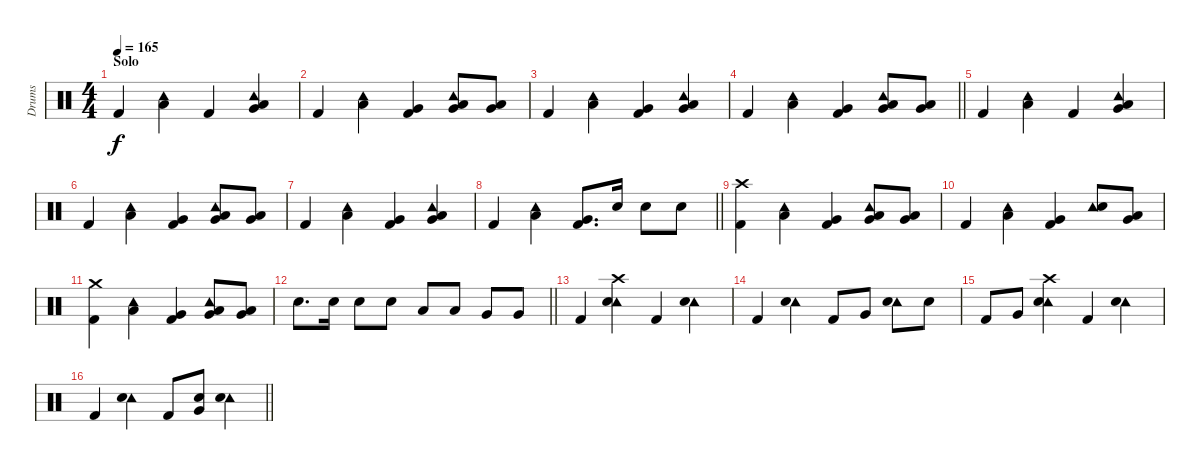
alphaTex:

\track ("Drums" "Drums") {instrument percussion}
\staff {score}
\articulation defaults
\ts (4 4)
\section ("" "Solo")
\tempo 165
\clef neutral
\ks c "Kick (hit) 2".4{dy f}
("Tambourine (hit)" "Low Tom (hit)").4 "Kick (hit) 2".4 ("Tambourine (hit)" "Low Tom (hit)" "Very Low Tom (hit)").4 |
"Kick (hit) 2".4 ("Tambourine (hit)" "Low Tom (hit)").4 ("Very Low Tom (hit)" "Kick (hit) 2").4 ("Tambourine (hit)" "Low Tom (hit)" "Very Low Tom (hit)").8 ("Low Tom (hit)" "Very Low Tom (hit)").8 |
"Kick (hit) 2".4 ("Tambourine (hit)" "Low Tom (hit)").4 ("Very Low Tom (hit)" "Kick (hit) 2").4 ("Tambourine (hit)" "Low Tom (hit)" "Very Low Tom (hit)").4 |
\barLineRight lightlight "Kick (hit) 2".4
("Tambourine (hit)" "Low Tom (hit)").4 ("Very Low Tom (hit)" "Kick (hit) 2").4 ("Tambourine (hit)" "Low Tom (hit)" "Very Low Tom (hit)").8 ("Low Tom (hit)" "Very Low Tom (hit)").8 |
"Kick (hit) 2".4 ("Tambourine (hit)" "Low Tom (hit)").4 "Kick (hit) 2".4 ("Tambourine (hit)" "Low Tom (hit)" "Very Low Tom (hit)").4 |
"Kick (hit) 2".4 ("Tambourine (hit)" "Low Tom (hit)").4 ("Very Low Tom (hit)" "Kick (hit) 2").4 ("Tambourine (hit)" "Low Tom (hit)" "Very Low Tom (hit)").8 ("Low Tom (hit)" "Very Low Tom (hit)").8 |
"Kick (hit) 2".4 ("Tambourine (hit)" "Low Tom (hit)").4 ("Very Low Tom (hit)" "Kick (hit) 2").4 ("Tambourine (hit)" "Low Tom (hit)" "Very Low Tom (hit)").4 |
\barLineRight lightlight "Kick (hit) 2".4
("Tambourine (hit)" "Low Tom (hit)").4 ("Very Low Tom (hit)" "Kick (hit) 2").8{d} "Snare (hit) 2".16 "Snare (hit) 2".8 "Snare (hit) 2".8 |
("Crash high (hit)" "Kick (hit) 2").4 ("Tambourine (hit)" "Low Tom (hit)").4 ("Very Low Tom (hit)" "Kick (hit) 2").4 ("Tambourine (hit)" "Low Tom (hit)" "Very Low Tom (hit)").8 ("Low Tom (hit)" "Very Low Tom (hit)").8 |
"Kick (hit) 2".4 ("Tambourine (hit)" "Low Tom (hit)").4 ("Very Low Tom (hit)" "Kick (hit) 2").4 ("Tambourine (hit)" "Snare (hit) 2").8 ("Low Tom (hit)" "Very Low Tom (hit)").8 |
("Crash medium (hit)" "Kick (hit) 2").4 ("Tambourine (hit)" "Low Tom (hit)").4 ("Very Low Tom (hit)" "Kick (hit) 2").4 ("Tambourine (hit)" "Low Tom (hit)" "Very Low Tom (hit)").8 ("Low Tom (hit)" "Very Low Tom (hit)").8 |
\barLineRight lightlight "Snare (hit) 2".8{d} "Snare (hit) 2".16 "Snare (hit) 2".8 "Snare (hit) 2".8 "Low Tom (hit)".8 "Low Tom (hit)".8 "Very Low Tom (hit)".8 "Very Low Tom (hit)".8
|
"Kick (hit) 2".4 ("Crash high (hit)" "Tambourine (hit)" "Snare (hit) 2").4 "Kick (hit) 2".4 ("Tambourine (hit)" "Snare (hit) 2").4 |
"Kick (hit) 2".4 ("Tambourine (hit)" "Snare (hit) 2").4 "Kick (hit) 2".8 "Very Low Tom (hit)".8 ("Tambourine (hit)" "Snare (hit) 2").8 "Snare (hit) 2".8 |
"Kick (hit) 2".8 "Very Low Tom (hit)".8 ("Crash high (hit)" "Tambourine (hit)" "Snare (hit) 2").4 "Kick (hit) 2".4 ("Tambourine (hit)" "Snare (hit) 2").4 |
\barLineRight lightlight "Kick (hit) 2".4
("Tambourine (hit)" "Snare (hit) 2").4 "Kick (hit) 2".8 ("Snare (hit) 2" "Very Low Tom (hit)").8 ("Tambourine (hit)" "Snare (hit) 2").4
